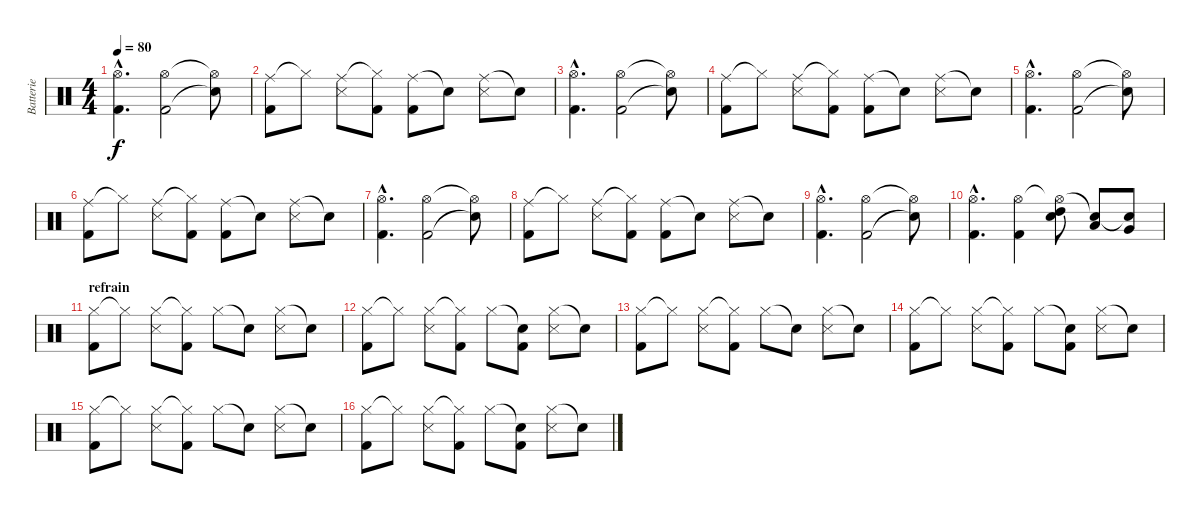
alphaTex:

\track ("Batterie" "Batterie") {instrument percussion}
\staff {score}
\articulation defaults
\ts (4 4)
\tempo 80
\clef neutral
\ks c
("Hi-Hat (open)"{hac} "Kick (hit) 2"{hac}).4{d dy f} ("Hi-Hat (open)" "Kick (hit) 2").2 ("Hi-Hat (open)"{t} "Snare (hit)"{t}).8 |
("Ride (middle)" "Kick (hit) 2").8 "Hi-Hat (closed)"{t}.8 ("Ride (middle)" "Snare (side stick) 3").8 ("Hi-Hat (closed)"{t} "Kick (hit) 2").8 ("Ride (middle)" "Kick (hit) 2").8 "Snare (hit)"{t}.8 ("Ride (middle)" "Snare (side stick) 3").8 "Snare (hit)"{t}.8 |
("Hi-Hat (open)"{hac} "Kick (hit) 2"{hac}).4{d} ("Hi-Hat (open)" "Kick (hit) 2").2 ("Hi-Hat (open)"{t} "Snare (hit)"{t}).8 |
("Ride (middle)" "Kick (hit) 2").8 "Hi-Hat (closed)"{t}.8 ("Ride (middle)" "Snare (side stick) 3").8 ("Hi-Hat (closed)"{t} "Kick (hit) 2").8 ("Ride (middle)" "Kick (hit) 2").8 "Snare (hit)"{t}.8 ("Ride (middle)" "Snare (side stick) 3").8 "Snare (hit)"{t}.8 |
("Hi-Hat (open)"{hac} "Kick (hit) 2"{hac}).4{d} ("Hi-Hat (open)" "Kick (hit) 2").2 ("Hi-Hat (open)"{t} "Snare (hit)"{t}).8 |
("Ride (middle)" "Kick (hit) 2").8 "Hi-Hat (closed)"{t}.8 ("Ride (middle)" "Snare (side stick) 3").8 ("Hi-Hat (closed)"{t} "Kick (hit) 2").8 ("Ride (middle)" "Kick (hit) 2").8 "Snare (hit)"{t}.8 ("Ride (middle)" "Snare (side stick) 3").8 "Snare (hit)"{t}.8 |
("Hi-Hat (open)"{hac} "Kick (hit) 2"{hac}).4{d} ("Hi-Hat (open)" "Kick (hit) 2").2 ("Hi-Hat (open)"{t} "Snare (hit)"{t}).8 |
("Ride (middle)" "Kick (hit) 2").8 "Hi-Hat (closed)"{t}.8 ("Ride (middle)" "Snare (side stick) 3").8 ("Hi-Hat (closed)"{t} "Kick (hit) 2").8 ("Ride (middle)" "Kick (hit) 2").8 "Snare (hit)"{t}.8 ("Ride (middle)" "Snare (side stick) 3").8 "Snare (hit)"{t}.8 |
("Hi-Hat (open)"{hac} "Kick (hit) 2"{hac}).4{d} ("Hi-Hat (open)" "Kick (hit) 2").2 ("Hi-Hat (open)"{t} "Snare (hit)"{t}).8 |
("Hi-Hat (open)"{hac} "Kick (hit) 2"{hac}).4{d} ("Hi-Hat (open)" "Kick (hit) 2").4 ("Hi-Hat (open)"{t} "High Tom (hit)" "Snare (hit)").8 ("Snare (hit)"{t} "Low Tom (hit)").8 ("Snare (hit)"{t} "Very Low Tom (hit)").8 |
\section ("" "refrain")
("Hi-Hat (closed)" "Kick (hit) 2").8 "Hi-Hat (closed)"{t}.8 ("Hi-Hat (closed)" "Snare (side stick) 3").8 ("Hi-Hat (closed)"{t} "Kick (hit) 2").8 "Hi-Hat (closed)".8 "Snare (hit)"{t}.8 ("Hi-Hat (closed)" "Snare (side stick) 3").8 "Snare (hit)"{t}.8 |
("Hi-Hat (closed)" "Kick (hit) 2").8 "Hi-Hat (closed)"{t}.8 ("Hi-Hat (closed)" "Snare (side stick) 3").8 ("Hi-Hat (closed)"{t} "Kick (hit) 2").8 "Hi-Hat (closed)".8 ("Snare (hit)"{t} "Kick (hit) 2").8 ("Hi-Hat (closed)" "Snare (side stick) 3").8 "Snare (hit)"{t}.8 |
("Hi-Hat (closed)" "Kick (hit) 2").8 "Hi-Hat (closed)"{t}.8 ("Hi-Hat (closed)" "Snare (side stick) 3").8 ("Hi-Hat (closed)"{t} "Kick (hit) 2").8 "Hi-Hat (closed)".8 "Snare (hit)"{t}.8 ("Hi-Hat (closed)" "Snare (side stick) 3").8 "Snare (hit)"{t}.8 |
("Hi-Hat (closed)" "Kick (hit) 2").8 "Hi-Hat (closed)"{t}.8 ("Hi-Hat (closed)" "Snare (side stick) 3").8 ("Hi-Hat (closed)"{t} "Kick (hit) 2").8 "Hi-Hat (closed)".8 ("Snare (hit)"{t} "Kick (hit) 2").8 ("Hi-Hat (closed)" "Snare (side stick) 3").8 "Snare (hit)"{t}.8 |
("Hi-Hat (closed)" "Kick (hit) 2").8 "Hi-Hat (closed)"{t}.8 ("Hi-Hat (closed)" "Snare (side stick) 3").8 ("Hi-Hat (closed)"{t} "Kick (hit) 2").8 "Hi-Hat (closed)".8 "Snare (hit)"{t}.8 ("Hi-Hat (closed)" "Snare (side stick) 3").8 "Snare (hit)"{t}.8 |
("Hi-Hat (closed)" "Kick (hit) 2").8 "Hi-Hat (closed)"{t}.8 ("Hi-Hat (closed)" "Snare (side stick) 3").8 ("Hi-Hat (closed)"{t} "Kick (hit) 2").8 "Hi-Hat (closed)".8 ("Snare (hit)"{t} "Kick (hit) 2").8 ("Hi-Hat (closed)" "Snare (side stick) 3").8 "Snare (hit)"{t}.8
